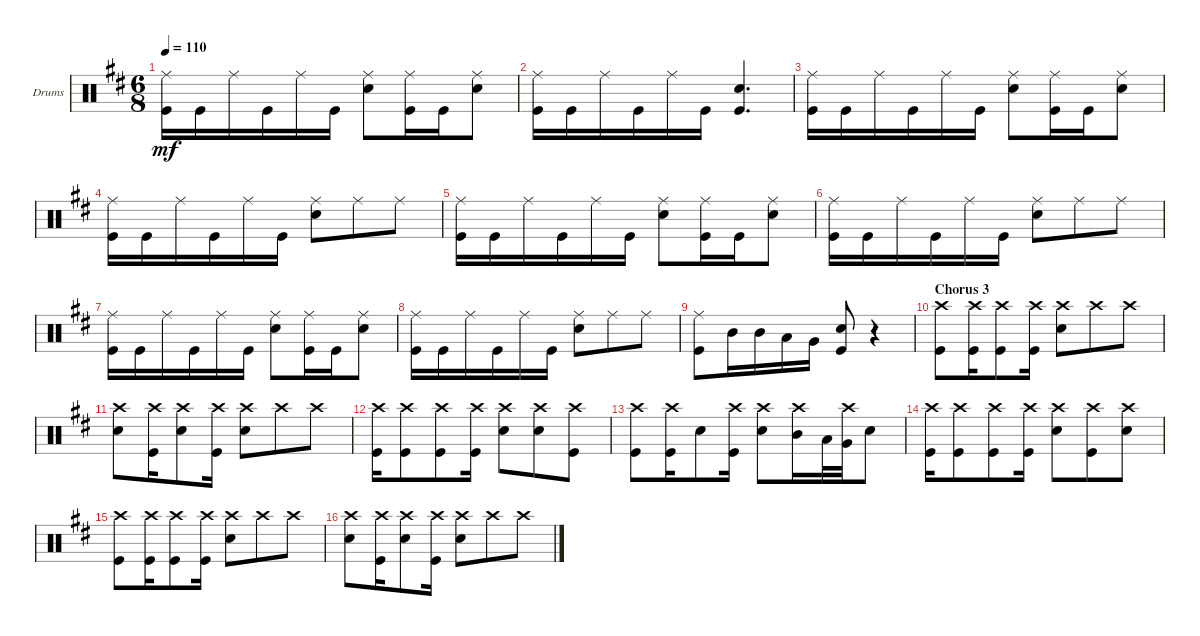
\defaultSystemsLayout 4
\bracketExtendMode groupsimilarinstruments
\firstSystemTrackNameOrientation horizontal
\otherSystemsTrackNameOrientation horizontal
\track ("Drumkit" "Drums") {instrument percussion}
\staff {score}
\articulation defaults
\ts (6 8)
\tempo 110
\clef neutral
\ks d
("Kick (hit)" "Ride (middle)").16{dy mf} "Kick (hit)".16 "Ride (middle)".16 "Kick (hit)".16 "Ride (middle)".16 "Kick (hit)".16 ("Snare (hit) 2" "Ride (middle)").8 ("Kick (hit)" "Ride (middle)").16 "Kick (hit)".16 ("Snare (hit) 2" "Ride (middle)").8 |
("Kick (hit)" "Ride (middle)").16 "Kick (hit)".16 "Ride (middle)".16 "Kick (hit)".16 "Ride (middle)".16 "Kick (hit)".16 ("Snare (hit) 2" "Kick (hit)").4{d} |
("Kick (hit)" "Ride (middle)").16 "Kick (hit)".16 "Ride (middle)".16 "Kick (hit)".16 "Ride (middle)".16 "Kick (hit)".16 ("Snare (hit) 2" "Ride (middle)").8 ("Kick (hit)" "Ride (middle)").16 "Kick (hit)".16 ("Snare (hit) 2" "Ride (middle)").8 |
("Kick (hit)" "Ride (middle)").16 "Kick (hit)".16 "Ride (middle)".16 "Kick (hit)".16 "Ride (middle)".16 "Kick (hit)".16 ("Snare (hit) 2" "Ride (middle)").8 "Ride (middle)".8 "Ride (middle)".8 |
("Kick (hit)" "Ride (middle)").16 "Kick (hit)".16 "Ride (middle)".16 "Kick (hit)".16 "Ride (middle)".16 "Kick (hit)".16 ("Snare (hit) 2" "Ride (middle)").8 ("Kick (hit)" "Ride (middle)").16 "Kick (hit)".16 ("Snare (hit) 2" "Ride (middle)").8 |
("Kick (hit)" "Ride (middle)").16 "Kick (hit)".16 "Ride (middle)".16 "Kick (hit)".16 "Ride (middle)".16 "Kick (hit)".16 ("Snare (hit) 2" "Ride (middle)").8 "Ride (middle)".8 "Ride (middle)".8 |
("Kick (hit)" "Ride (middle)").16 "Kick (hit)".16 "Ride (middle)".16 "Kick (hit)".16 "Ride (middle)".16 "Kick (hit)".16 ("Snare (hit) 2" "Ride (middle)").8 ("Kick (hit)" "Ride (middle)").16 "Kick (hit)".16 ("Snare (hit) 2" "Ride (middle)").8 |
("Kick (hit)" "Ride (middle)").16 "Kick (hit)".16 "Ride (middle)".16 "Kick (hit)".16 "Ride (middle)".16 "Kick (hit)".16 ("Snare (hit) 2" "Ride (middle)").8 "Ride (middle)".8 "Ride (middle)".8 |
("Kick (hit)" "Ride (middle)").8 "Mid Tom (hit)".16 "Mid Tom (hit)".16 "Low Tom (hit)".16 "Very Low Tom (hit)".16 ("Kick (hit)" "Snare (hit) 2").8 r.4 |
\section ("" "Chorus 3")
("Kick (hit)" "Crash high (hit)").8 ("Kick (hit)" "Crash high (hit)").16 ("Kick (hit)" "Crash high (hit)").8 ("Kick (hit)" "Crash high (hit)").16 ("Snare (hit) 2" "Crash high (hit)").8 "Crash high (hit)".8 "Crash high (hit)".8 |
("Crash high (hit)" "Snare (hit) 2").8 ("Kick (hit)" "Crash high (hit)").16 ("Crash high (hit)" "Snare (hit) 2").8 ("Kick (hit)" "Crash high (hit)").16 ("Snare (hit) 2" "Crash high (hit)").8 "Crash high (hit)".8 "Crash high (hit)".8 |
("Kick (hit)" "Crash high (hit)").16 ("Kick (hit)" "Crash high (hit)").8 ("Kick (hit)" "Crash high (hit)").8 ("Kick (hit)" "Crash high (hit)").16 ("Snare (hit) 2" "Crash high (hit)").8 ("Crash high (hit)" "Snare (hit) 2").8 ("Crash high (hit)" "Kick (hit)").8 |
("Kick (hit)" "Crash high (hit)").8 ("Kick (hit)" "Crash high (hit)").16 "Snare (hit) 2".8 ("Kick (hit)" "Crash high (hit)").16 ("Snare (hit) 2" "Crash high (hit)").8 ("Mid Tom (hit)" "Crash high (hit)").16 "Low Tom (hit)".32 ("Very Low Tom (hit)" "Crash high (hit)").32 "Snare (hit) 2".8 |
("Kick (hit)" "Crash high (hit)").16 ("Kick (hit)" "Crash high (hit)").8 ("Kick (hit)" "Crash high (hit)").8 ("Kick (hit)" "Crash high (hit)").16 ("Snare (hit) 2" "Crash high (hit)").8 ("Kick (hit)" "Crash high (hit)").8 ("Snare (hit) 2" "Crash high (hit)").8 |
("Kick (hit)" "Crash high (hit)").8 ("Kick (hit)" "Crash high (hit)").16 ("Kick (hit)" "Crash high (hit)").8 ("Kick (hit)" "Crash high (hit)").16 ("Snare (hit) 2" "Crash high (hit)").8 "Crash high (hit)".8 "Crash high (hit)".8 |
("Crash high (hit)" "Snare (hit) 2").8 ("Kick (hit)" "Crash high (hit)").16 ("Crash high (hit)" "Snare (hit) 2").8 ("Kick (hit)" "Crash high (hit)").16 ("Snare (hit) 2" "Crash high (hit)").8 "Crash high (hit)".8 "Crash high (hit)".8
